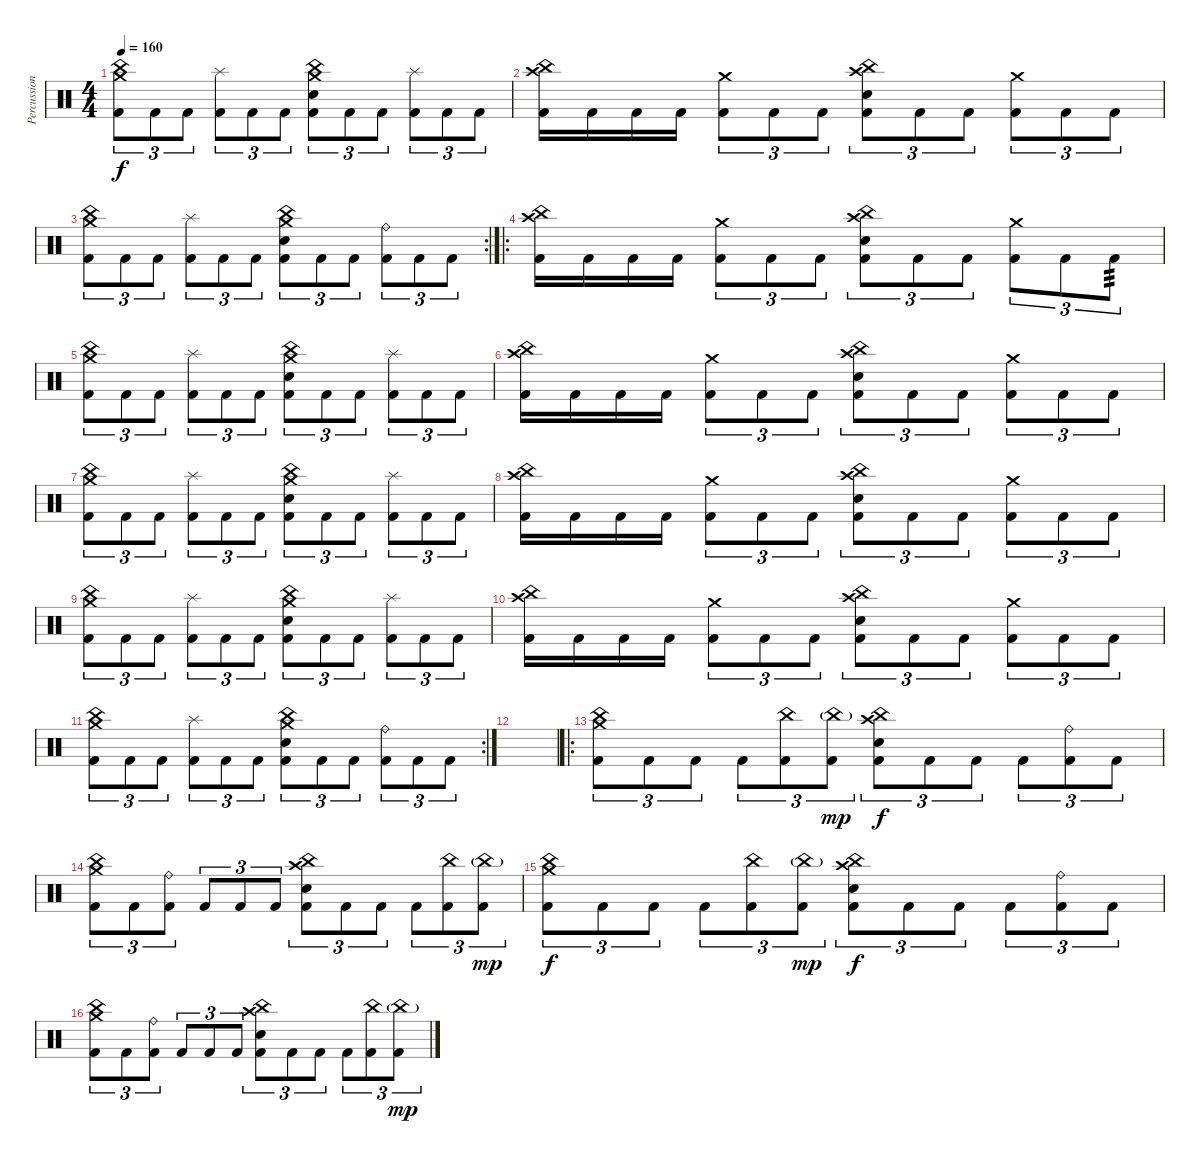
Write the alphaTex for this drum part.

\track ("Percussion" "Percussion") {instrument percussion}
\staff {score}
\articulation defaults
\ts (4 4)
\tempo 160
\clef neutral
\ks c
("Crash medium (hit)" "China (hit)" "Kick (hit) 2").8{tu (3 2) dy f} "Kick (hit) 2".8{tu (3 2)} "Kick (hit) 2".8{tu (3 2)} ("Splash (hit)" "Kick (hit) 2").8{tu (3 2)} "Kick (hit) 2".8{tu (3 2)} "Kick (hit) 2".8{tu (3 2)} ("Crash medium (hit)" "Electric Snare (hit)" "China (hit)" "Kick (hit) 2").8{tu (3 2)} "Kick (hit) 2".8{tu (3 2)} "Kick (hit) 2".8{tu (3 2)} ("Splash (hit)" "Kick (hit) 2").8{tu (3 2)} "Kick (hit) 2".8{tu (3 2)} "Kick (hit) 2".8{tu (3 2)} |
("China (hit)" "Crash high (hit)" "Kick (hit) 2").16 "Kick (hit) 2".16 "Kick (hit) 2".16 "Kick (hit) 2".16 ("Crash medium (hit)" "Kick (hit) 2").8{tu (3 2)} "Kick (hit) 2".8{tu (3 2)} "Kick (hit) 2".8{tu (3 2)} ("Crash high (hit)" "China (hit)" "Electric Snare (hit)" "Kick (hit) 2").8{tu (3 2)} "Kick (hit) 2".8{tu (3 2)} "Kick (hit) 2".8{tu (3 2)} ("Crash medium (hit)" "Kick (hit) 2").8{tu (3 2)} "Kick (hit) 2".8{tu (3 2)} "Kick (hit) 2".8{tu (3 2)} |
\rc 2
("Crash medium (hit)" "China (hit)" "Kick (hit) 2").8{tu (3 2)} "Kick (hit) 2".8{tu (3 2)} "Kick (hit) 2".8{tu (3 2)} ("Splash (hit)" "Kick (hit) 2").8{tu (3 2)} "Kick (hit) 2".8{tu (3 2)} "Kick (hit) 2".8{tu (3 2)} ("Crash medium (hit)" "Electric Snare (hit)" "China (hit)" "Kick (hit) 2").8{tu (3 2)} "Kick (hit) 2".8{tu (3 2)} "Kick (hit) 2".8{tu (3 2)} ("Ride (bell)" "Kick (hit) 2").8{tu (3 2)} "Kick (hit) 2".8{tu (3 2)} "Kick (hit) 2".8{tu (3 2)} |
\ro
("China (hit)" "Crash high (hit)" "Kick (hit) 2").16 "Kick (hit) 2".16 "Kick (hit) 2".16 "Kick (hit) 2".16 ("Crash medium (hit)" "Kick (hit) 2").8{tu (3 2)} "Kick (hit) 2".8{tu (3 2)} "Kick (hit) 2".8{tu (3 2)} ("Crash high (hit)" "China (hit)" "Electric Snare (hit)" "Kick (hit) 2").8{tu (3 2)} "Kick (hit) 2".8{tu (3 2)} "Kick (hit) 2".8{tu (3 2)} ("Crash medium (hit)" "Kick (hit) 2").8{tu (3 2)} "Kick (hit) 2".8{tu (3 2)} "Kick (hit) 2".8{tu (3 2) tp 3} |
("Crash medium (hit)" "China (hit)" "Kick (hit) 2").8{tu (3 2)} "Kick (hit) 2".8{tu (3 2)} "Kick (hit) 2".8{tu (3 2)} ("Splash (hit)" "Kick (hit) 2").8{tu (3 2)} "Kick (hit) 2".8{tu (3 2)} "Kick (hit) 2".8{tu (3 2)} ("Crash medium (hit)" "Electric Snare (hit)" "China (hit)" "Kick (hit) 2").8{tu (3 2)} "Kick (hit) 2".8{tu (3 2)} "Kick (hit) 2".8{tu (3 2)} ("Splash (hit)" "Kick (hit) 2").8{tu (3 2)} "Kick (hit) 2".8{tu (3 2)} "Kick (hit) 2".8{tu (3 2)} |
("China (hit)" "Crash high (hit)" "Kick (hit) 2").16 "Kick (hit) 2".16 "Kick (hit) 2".16 "Kick (hit) 2".16 ("Crash medium (hit)" "Kick (hit) 2").8{tu (3 2)} "Kick (hit) 2".8{tu (3 2)} "Kick (hit) 2".8{tu (3 2)} ("Crash high (hit)" "China (hit)" "Electric Snare (hit)" "Kick (hit) 2").8{tu (3 2)} "Kick (hit) 2".8{tu (3 2)} "Kick (hit) 2".8{tu (3 2)} ("Crash medium (hit)" "Kick (hit) 2").8{tu (3 2)} "Kick (hit) 2".8{tu (3 2)} "Kick (hit) 2".8{tu (3 2)} |
("Crash medium (hit)" "China (hit)" "Kick (hit) 2").8{tu (3 2)} "Kick (hit) 2".8{tu (3 2)} "Kick (hit) 2".8{tu (3 2)} ("Splash (hit)" "Kick (hit) 2").8{tu (3 2)} "Kick (hit) 2".8{tu (3 2)} "Kick (hit) 2".8{tu (3 2)} ("Crash medium (hit)" "Electric Snare (hit)" "China (hit)" "Kick (hit) 2").8{tu (3 2)} "Kick (hit) 2".8{tu (3 2)} "Kick (hit) 2".8{tu (3 2)} ("Splash (hit)" "Kick (hit) 2").8{tu (3 2)} "Kick (hit) 2".8{tu (3 2)} "Kick (hit) 2".8{tu (3 2)} |
("China (hit)" "Crash high (hit)" "Kick (hit) 2").16 "Kick (hit) 2".16 "Kick (hit) 2".16 "Kick (hit) 2".16 ("Crash medium (hit)" "Kick (hit) 2").8{tu (3 2)} "Kick (hit) 2".8{tu (3 2)} "Kick (hit) 2".8{tu (3 2)} ("Crash high (hit)" "China (hit)" "Electric Snare (hit)" "Kick (hit) 2").8{tu (3 2)} "Kick (hit) 2".8{tu (3 2)} "Kick (hit) 2".8{tu (3 2)} ("Crash medium (hit)" "Kick (hit) 2").8{tu (3 2)} "Kick (hit) 2".8{tu (3 2)} "Kick (hit) 2".8{tu (3 2)} |
("Crash medium (hit)" "China (hit)" "Kick (hit) 2").8{tu (3 2)} "Kick (hit) 2".8{tu (3 2)} "Kick (hit) 2".8{tu (3 2)} ("Splash (hit)" "Kick (hit) 2").8{tu (3 2)} "Kick (hit) 2".8{tu (3 2)} "Kick (hit) 2".8{tu (3 2)} ("Crash medium (hit)" "Electric Snare (hit)" "China (hit)" "Kick (hit) 2").8{tu (3 2)} "Kick (hit) 2".8{tu (3 2)} "Kick (hit) 2".8{tu (3 2)} ("Splash (hit)" "Kick (hit) 2").8{tu (3 2)} "Kick (hit) 2".8{tu (3 2)} "Kick (hit) 2".8{tu (3 2)} |
("China (hit)" "Crash high (hit)" "Kick (hit) 2").16 "Kick (hit) 2".16 "Kick (hit) 2".16 "Kick (hit) 2".16 ("Crash medium (hit)" "Kick (hit) 2").8{tu (3 2)} "Kick (hit) 2".8{tu (3 2)} "Kick (hit) 2".8{tu (3 2)} ("Crash high (hit)" "China (hit)" "Electric Snare (hit)" "Kick (hit) 2").8{tu (3 2)} "Kick (hit) 2".8{tu (3 2)} "Kick (hit) 2".8{tu (3 2)} ("Crash medium (hit)" "Kick (hit) 2").8{tu (3 2)} "Kick (hit) 2".8{tu (3 2)} "Kick (hit) 2".8{tu (3 2)} |
\rc 2
("Crash medium (hit)" "China (hit)" "Kick (hit) 2").8{tu (3 2)} "Kick (hit) 2".8{tu (3 2)} "Kick (hit) 2".8{tu (3 2)} ("Splash (hit)" "Kick (hit) 2").8{tu (3 2)} "Kick (hit) 2".8{tu (3 2)} "Kick (hit) 2".8{tu (3 2)} ("Crash medium (hit)" "Electric Snare (hit)" "China (hit)" "Kick (hit) 2").8{tu (3 2)} "Kick (hit) 2".8{tu (3 2)} "Kick (hit) 2".8{tu (3 2)} ("Ride (bell)" "Kick (hit) 2").8{tu (3 2)} "Kick (hit) 2".8{tu (3 2)} "Kick (hit) 2".8{tu (3 2)} |
|
\ro
("Kick (hit) 2" "China (hit)" "Crash medium (hit)").8{tu (3 2)} "Kick (hit) 2".8{tu (3 2)} "Kick (hit) 2".8{tu (3 2)} "Kick (hit) 2".8{tu (3 2)} ("Kick (hit) 2" "China (hit)").8{tu (3 2)} ("Kick (hit) 2" "China (hit)"{g}).8{tu (3 2) dy mp} ("Kick (hit) 2" "China (hit)" "Electric Snare (hit)" "Crash high (hit)").8{tu (3 2) dy f} "Kick (hit) 2".8{tu (3 2)} "Kick (hit) 2".8{tu (3 2)} "Kick (hit) 2".8{tu (3 2)} ("Kick (hit) 2" "Ride (bell)").8{tu (3 2)} "Kick (hit) 2".8{tu (3 2)} |
("Kick (hit) 2" "China (hit)" "Crash medium (hit)").8{tu (3 2)} "Kick (hit) 2".8{tu (3 2)} ("Kick (hit) 2" "Ride (bell)").8{tu (3 2)} "Kick (hit) 2".8{tu (3 2)} "Kick (hit) 2".8{tu (3 2)} "Kick (hit) 2".8{tu (3 2)} ("Kick (hit) 2" "Crash high (hit)" "China (hit)" "Electric Snare (hit)").8{tu (3 2)} "Kick (hit) 2".8{tu (3 2)} "Kick (hit) 2".8{tu (3 2)} "Kick (hit) 2".8{tu (3 2)} ("Kick (hit) 2" "China (hit)").8{tu (3 2)} ("Kick (hit) 2" "China (hit)"{g}).8{tu (3 2) dy mp} |
("Kick (hit) 2" "China (hit)" "Crash medium (hit)").8{tu (3 2) dy f} "Kick (hit) 2".8{tu (3 2)} "Kick (hit) 2".8{tu (3 2)} "Kick (hit) 2".8{tu (3 2)} ("Kick (hit) 2" "China (hit)").8{tu (3 2)} ("Kick (hit) 2" "China (hit)"{g}).8{tu (3 2) dy mp} ("Kick (hit) 2" "China (hit)" "Electric Snare (hit)" "Crash high (hit)").8{tu (3 2) dy f} "Kick (hit) 2".8{tu (3 2)} "Kick (hit) 2".8{tu (3 2)} "Kick (hit) 2".8{tu (3 2)} ("Kick (hit) 2" "Ride (bell)").8{tu (3 2)} "Kick (hit) 2".8{tu (3 2)} |
("Kick (hit) 2" "China (hit)" "Crash medium (hit)").8{tu (3 2)} "Kick (hit) 2".8{tu (3 2)} ("Kick (hit) 2" "Ride (bell)").8{tu (3 2)} "Kick (hit) 2".8{tu (3 2)} "Kick (hit) 2".8{tu (3 2)} "Kick (hit) 2".8{tu (3 2)} ("Kick (hit) 2" "Crash high (hit)" "China (hit)" "Electric Snare (hit)").8{tu (3 2)} "Kick (hit) 2".8{tu (3 2)} "Kick (hit) 2".8{tu (3 2)} "Kick (hit) 2".8{tu (3 2)} ("Kick (hit) 2" "China (hit)").8{tu (3 2)} ("Kick (hit) 2" "China (hit)"{g}).8{tu (3 2) dy mp}
